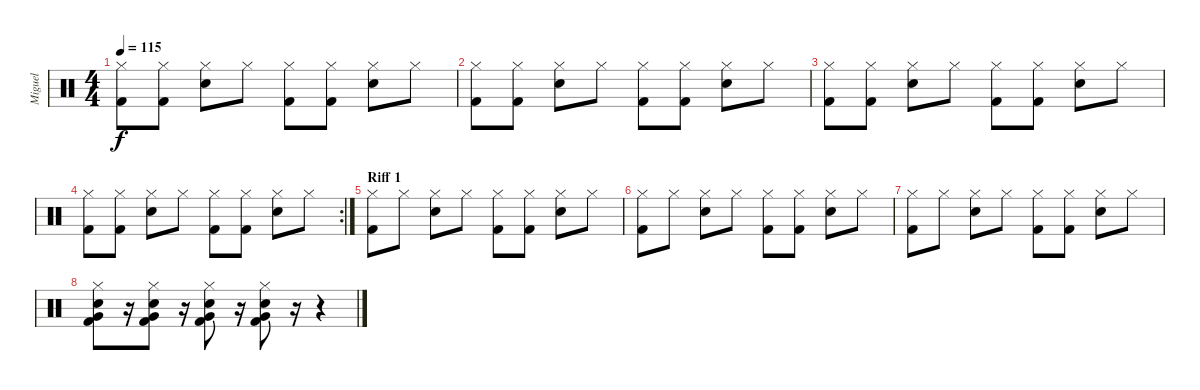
\track ("Miguel" "Miguel") {instrument percussion}
\staff {score}
\articulation defaults
\ts (4 4)
\tempo 115
\clef neutral
\ks c
("Hi-Hat (closed)" "Kick (hit) 2").8{dy f} ("Hi-Hat (closed)" "Kick (hit) 2").8 ("Hi-Hat (closed)" "Snare (hit) 2").8 "Hi-Hat (closed)".8 ("Hi-Hat (closed)" "Kick (hit) 2").8 ("Hi-Hat (closed)" "Kick (hit) 2").8 ("Hi-Hat (closed)" "Snare (hit) 2").8 "Hi-Hat (closed)".8 |
("Hi-Hat (closed)" "Kick (hit) 2").8 ("Hi-Hat (closed)" "Kick (hit) 2").8 ("Hi-Hat (closed)" "Snare (hit) 2").8 "Hi-Hat (closed)".8 ("Hi-Hat (closed)" "Kick (hit) 2").8 ("Hi-Hat (closed)" "Kick (hit) 2").8 ("Hi-Hat (closed)" "Snare (hit) 2").8 "Hi-Hat (closed)".8 |
("Hi-Hat (closed)" "Kick (hit) 2").8 ("Hi-Hat (closed)" "Kick (hit) 2").8 ("Hi-Hat (closed)" "Snare (hit) 2").8 "Hi-Hat (closed)".8 ("Hi-Hat (closed)" "Kick (hit) 2").8 ("Hi-Hat (closed)" "Kick (hit) 2").8 ("Hi-Hat (closed)" "Snare (hit) 2").8 "Hi-Hat (closed)".8 |
\rc 2
("Hi-Hat (closed)" "Kick (hit) 2").8 ("Hi-Hat (closed)" "Kick (hit) 2").8 ("Hi-Hat (closed)" "Snare (hit) 2").8 "Hi-Hat (closed)".8 ("Hi-Hat (closed)" "Kick (hit) 2").8 ("Hi-Hat (closed)" "Kick (hit) 2").8 ("Hi-Hat (closed)" "Snare (hit) 2").8 "Hi-Hat (closed)".8 |
\section ("" "Riff 1")
("Hi-Hat (closed)" "Kick (hit) 2").8 "Hi-Hat (closed)".8 ("Hi-Hat (closed)" "Snare (hit) 2").8 "Hi-Hat (closed)".8 ("Hi-Hat (closed)" "Kick (hit) 2").8 ("Hi-Hat (closed)" "Kick (hit) 2").8 ("Hi-Hat (closed)" "Snare (hit) 2").8 "Hi-Hat (closed)".8 |
("Hi-Hat (closed)" "Kick (hit) 2").8 "Hi-Hat (closed)".8 ("Hi-Hat (closed)" "Snare (hit) 2").8 "Hi-Hat (closed)".8 ("Hi-Hat (closed)" "Kick (hit) 2").8 ("Hi-Hat (closed)" "Kick (hit) 2").8 ("Hi-Hat (closed)" "Snare (hit) 2").8 "Hi-Hat (closed)".8 |
("Hi-Hat (closed)" "Kick (hit) 2").8 "Hi-Hat (closed)".8 ("Hi-Hat (closed)" "Snare (hit) 2").8 "Hi-Hat (closed)".8 ("Hi-Hat (closed)" "Kick (hit) 2").8 ("Hi-Hat (closed)" "Kick (hit) 2").8 ("Hi-Hat (closed)" "Snare (hit) 2").8 "Hi-Hat (closed)".8 |
("Hi-Hat (closed)" "Snare (hit) 2" "Very Low Tom (hit)" "Kick (hit) 2").8 r.16 ("Hi-Hat (closed)" "Snare (hit) 2" "Very Low Tom (hit)" "Kick (hit) 2").8 r.16 ("Hi-Hat (closed)" "Snare (hit) 2" "Very Low Tom (hit)" "Kick (hit) 2").8 r.16 ("Hi-Hat (closed)" "Snare (hit) 2" "Very Low Tom (hit)" "Kick (hit) 2").8 r.16 r.4
